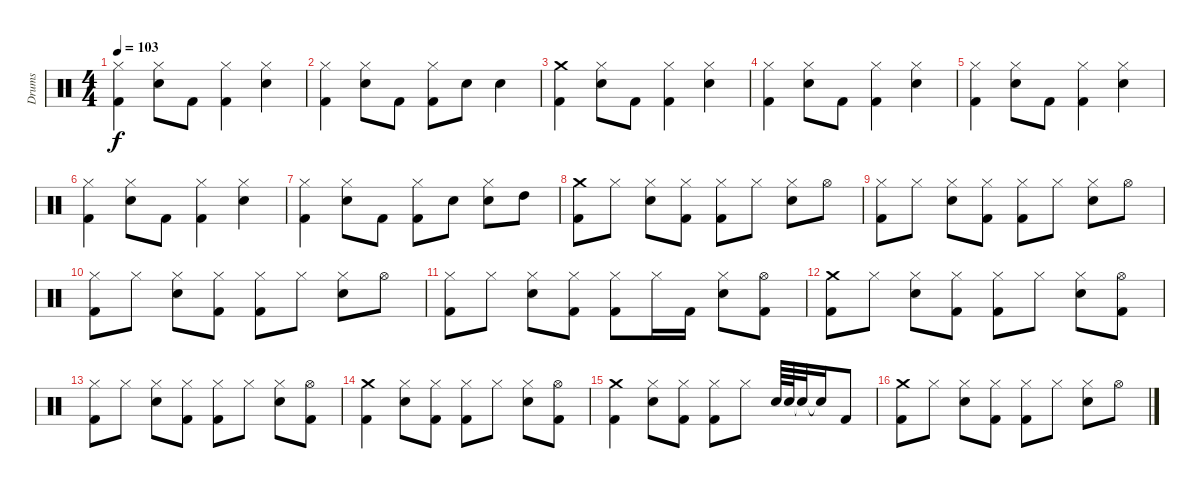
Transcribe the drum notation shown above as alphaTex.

\track ("Drums" "Drums") {instrument percussion}
\staff {score}
\articulation defaults
\ts (4 4)
\tempo 103
\clef neutral
\ks c
("Hi-Hat (closed)" "Kick (hit) 2").4{dy f} ("Hi-Hat (closed)" "Electric Snare (hit)").8 "Kick (hit) 2".8 ("Hi-Hat (closed)" "Kick (hit) 2").4 ("Hi-Hat (closed)" "Electric Snare (hit)").4 |
("Hi-Hat (closed)" "Kick (hit) 2").4 ("Hi-Hat (closed)" "Electric Snare (hit)").8 "Kick (hit) 2".8 ("Hi-Hat (closed)" "Kick (hit) 2").8 "Electric Snare (hit)".8 "Electric Snare (hit)".4 |
("Crash medium (hit)" "Kick (hit) 2").4 ("Hi-Hat (closed)" "Electric Snare (hit)").8 "Kick (hit) 2".8 ("Hi-Hat (closed)" "Kick (hit) 2").4 ("Hi-Hat (closed)" "Electric Snare (hit)").4 |
("Hi-Hat (closed)" "Kick (hit) 2").4 ("Hi-Hat (closed)" "Electric Snare (hit)").8 "Kick (hit) 2".8 ("Hi-Hat (closed)" "Kick (hit) 2").4 ("Hi-Hat (closed)" "Electric Snare (hit)").4 |
("Hi-Hat (closed)" "Kick (hit) 2").4 ("Hi-Hat (closed)" "Electric Snare (hit)").8 "Kick (hit) 2".8 ("Hi-Hat (closed)" "Kick (hit) 2").4 ("Hi-Hat (closed)" "Electric Snare (hit)").4 |
("Hi-Hat (closed)" "Kick (hit) 2").4 ("Hi-Hat (closed)" "Electric Snare (hit)").8 "Kick (hit) 2".8 ("Hi-Hat (closed)" "Kick (hit) 2").4 ("Hi-Hat (closed)" "Electric Snare (hit)").4 |
("Hi-Hat (closed)" "Kick (hit) 2").4 ("Hi-Hat (closed)" "Electric Snare (hit)").8 "Kick (hit) 2".8 ("Hi-Hat (closed)" "Kick (hit) 2").8 "Electric Snare (hit)".8 ("Hi-Hat (closed)" "Electric Snare (hit)").8 "High Tom (hit)".8 |
("Crash medium (hit)" "Kick (hit) 2").8 "Hi-Hat (closed)".8 ("Hi-Hat (closed)" "Electric Snare (hit)").8 ("Hi-Hat (closed)" "Kick (hit) 2").8 ("Hi-Hat (closed)" "Kick (hit) 2").8 "Hi-Hat (closed)".8 ("Hi-Hat (closed)" "Electric Snare (hit)").8 "Hi-Hat (open)".8 |
("Hi-Hat (closed)" "Kick (hit) 2").8 "Hi-Hat (closed)".8 ("Hi-Hat (closed)" "Electric Snare (hit)").8 ("Hi-Hat (closed)" "Kick (hit) 2").8 ("Hi-Hat (closed)" "Kick (hit) 2").8 "Hi-Hat (closed)".8 ("Hi-Hat (closed)" "Electric Snare (hit)").8 "Hi-Hat (open)".8 |
("Hi-Hat (closed)" "Kick (hit) 2").8 "Hi-Hat (closed)".8 ("Hi-Hat (closed)" "Electric Snare (hit)").8 ("Hi-Hat (closed)" "Kick (hit) 2").8 ("Hi-Hat (closed)" "Kick (hit) 2").8 "Hi-Hat (closed)".8 ("Hi-Hat (closed)" "Electric Snare (hit)").8 "Hi-Hat (open)".8 |
("Hi-Hat (closed)" "Kick (hit) 2").8 "Hi-Hat (closed)".8 ("Hi-Hat (closed)" "Electric Snare (hit)").8 ("Hi-Hat (closed)" "Kick (hit) 2").8 ("Hi-Hat (closed)" "Kick (hit) 2").8 "Hi-Hat (closed)".16 "Kick (hit) 2".16 ("Hi-Hat (closed)" "Electric Snare (hit)").8 ("Hi-Hat (open)" "Kick (hit) 2").8 |
("Crash medium (hit)" "Kick (hit) 2").8 "Hi-Hat (closed)".8 ("Hi-Hat (closed)" "Electric Snare (hit)").8 ("Hi-Hat (closed)" "Kick (hit) 2").8 ("Hi-Hat (closed)" "Kick (hit) 2").8 "Hi-Hat (closed)".8 ("Hi-Hat (closed)" "Electric Snare (hit)").8 ("Hi-Hat (open)" "Kick (hit) 2").8 |
("Hi-Hat (closed)" "Kick (hit) 2").8 "Hi-Hat (closed)".8 ("Hi-Hat (closed)" "Electric Snare (hit)").8 ("Hi-Hat (closed)" "Kick (hit) 2").8 ("Hi-Hat (closed)" "Kick (hit) 2").8 "Hi-Hat (closed)".8 ("Hi-Hat (closed)" "Electric Snare (hit)").8 ("Hi-Hat (open)" "Kick (hit) 2").8 |
("Crash medium (hit)" "Kick (hit) 2").4 ("Hi-Hat (closed)" "Electric Snare (hit)").8 ("Hi-Hat (closed)" "Kick (hit) 2").8 ("Hi-Hat (closed)" "Kick (hit) 2").8 "Hi-Hat (closed)".8 ("Hi-Hat (closed)" "Electric Snare (hit)").8 ("Hi-Hat (open)" "Kick (hit) 2").8 |
("Crash medium (hit)" "Kick (hit) 2").4 ("Hi-Hat (closed)" "Electric Snare (hit)").8 ("Hi-Hat (closed)" "Kick (hit) 2").8 ("Hi-Hat (closed)" "Kick (hit) 2").8 "Hi-Hat (closed)".8 "Electric Snare (hit)".64 "Electric Snare (hit)".64 "Snare (hit)"{t}.32 "Snare (hit)"{t}.16 "Kick (hit) 2".8 |
("Crash medium (hit)" "Kick (hit) 2").8 "Hi-Hat (closed)".8 ("Hi-Hat (closed)" "Electric Snare (hit)").8 ("Hi-Hat (closed)" "Kick (hit) 2").8 ("Hi-Hat (closed)" "Kick (hit) 2").8 "Hi-Hat (closed)".8 ("Hi-Hat (closed)" "Electric Snare (hit)").8 "Hi-Hat (open)".8
